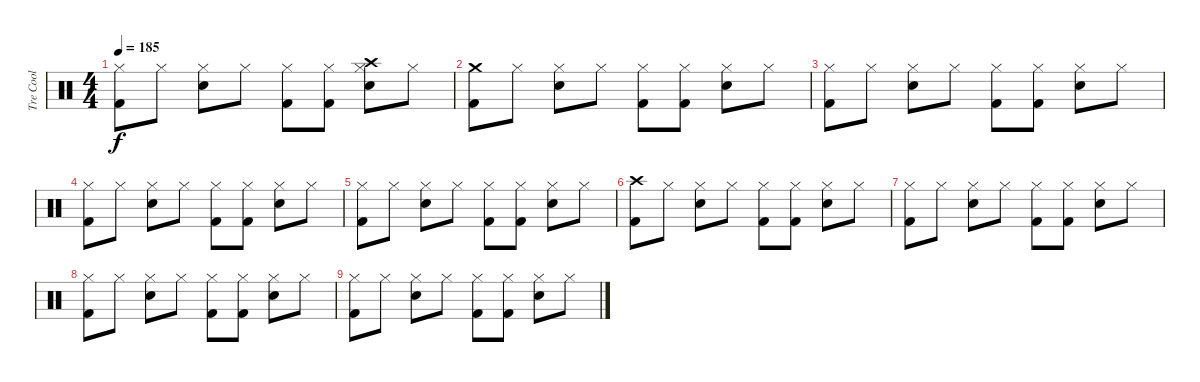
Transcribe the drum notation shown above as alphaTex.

\track ("Tre Cool" "Tre Cool") {instrument percussion}
\staff {score}
\articulation defaults
\ts (4 4)
\tempo 185
\clef neutral
\ks c
("Kick (hit) 2" "Hi-Hat (closed)").8{dy f} "Hi-Hat (closed)".8 ("Electric Snare (hit)" "Hi-Hat (closed)").8 "Hi-Hat (closed)".8 ("Kick (hit) 2" "Hi-Hat (closed)").8 ("Kick (hit) 2" "Hi-Hat (closed)").8 ("Crash high (hit)" "Electric Snare (hit)" "Hi-Hat (closed)").8 "Hi-Hat (closed)".8 |
("Crash medium (hit)" "Kick (hit) 2").8 "Hi-Hat (closed)".8 ("Electric Snare (hit)" "Hi-Hat (closed)").8 "Hi-Hat (closed)".8 ("Kick (hit) 2" "Hi-Hat (closed)").8 ("Kick (hit) 2" "Hi-Hat (closed)").8 ("Electric Snare (hit)" "Hi-Hat (closed)").8 "Hi-Hat (closed)".8 |
("Kick (hit) 2" "Hi-Hat (closed)").8 "Hi-Hat (closed)".8 ("Electric Snare (hit)" "Hi-Hat (closed)").8 "Hi-Hat (closed)".8 ("Kick (hit) 2" "Hi-Hat (closed)").8 ("Kick (hit) 2" "Hi-Hat (closed)").8 ("Electric Snare (hit)" "Hi-Hat (closed)").8 "Hi-Hat (closed)".8 |
("Kick (hit) 2" "Hi-Hat (closed)").8 "Hi-Hat (closed)".8 ("Electric Snare (hit)" "Hi-Hat (closed)").8 "Hi-Hat (closed)".8 ("Kick (hit) 2" "Hi-Hat (closed)").8 ("Kick (hit) 2" "Hi-Hat (closed)").8 ("Electric Snare (hit)" "Hi-Hat (closed)").8 "Hi-Hat (closed)".8 |
("Kick (hit) 2" "Hi-Hat (closed)").8 "Hi-Hat (closed)".8 ("Electric Snare (hit)" "Hi-Hat (closed)").8 "Hi-Hat (closed)".8 ("Kick (hit) 2" "Hi-Hat (closed)").8 ("Kick (hit) 2" "Hi-Hat (closed)").8 ("Electric Snare (hit)" "Hi-Hat (closed)").8 "Hi-Hat (closed)".8 |
("Crash high (hit)" "Kick (hit) 2").8 "Hi-Hat (closed)".8 ("Electric Snare (hit)" "Hi-Hat (closed)").8 "Hi-Hat (closed)".8 ("Kick (hit) 2" "Hi-Hat (closed)").8 ("Kick (hit) 2" "Hi-Hat (closed)").8 ("Electric Snare (hit)" "Hi-Hat (closed)").8 "Hi-Hat (closed)".8 |
("Kick (hit) 2" "Hi-Hat (closed)").8 "Hi-Hat (closed)".8 ("Electric Snare (hit)" "Hi-Hat (closed)").8 "Hi-Hat (closed)".8 ("Kick (hit) 2" "Hi-Hat (closed)").8 ("Kick (hit) 2" "Hi-Hat (closed)").8 ("Electric Snare (hit)" "Hi-Hat (closed)").8 "Hi-Hat (closed)".8 |
("Kick (hit) 2" "Hi-Hat (closed)").8 "Hi-Hat (closed)".8 ("Electric Snare (hit)" "Hi-Hat (closed)").8 "Hi-Hat (closed)".8 ("Kick (hit) 2" "Hi-Hat (closed)").8 ("Kick (hit) 2" "Hi-Hat (closed)").8 ("Electric Snare (hit)" "Hi-Hat (closed)").8 "Hi-Hat (closed)".8 |
("Kick (hit) 2" "Hi-Hat (closed)").8 "Hi-Hat (closed)".8 ("Electric Snare (hit)" "Hi-Hat (closed)").8 "Hi-Hat (closed)".8 ("Kick (hit) 2" "Hi-Hat (closed)").8 ("Kick (hit) 2" "Hi-Hat (closed)").8 ("Electric Snare (hit)" "Hi-Hat (closed)").8 "Hi-Hat (closed)".8
